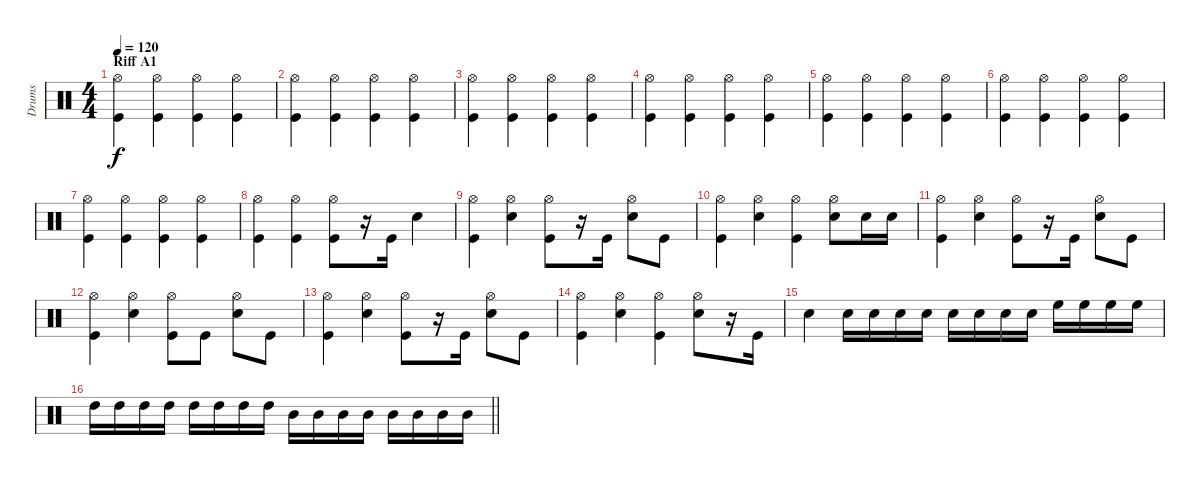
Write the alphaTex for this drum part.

\track ("Drums" "Drums") {instrument percussion}
\staff {score}
\articulation defaults
\ts (4 4)
\section ("" "Riff A1")
\tempo 120
\clef neutral
\ks c
("Hi-Hat (open)" "Kick (hit)").4{dy f} ("Hi-Hat (open)" "Kick (hit)").4 ("Hi-Hat (open)" "Kick (hit)").4 ("Hi-Hat (open)" "Kick (hit)").4 |
("Hi-Hat (open)" "Kick (hit)").4 ("Hi-Hat (open)" "Kick (hit)").4 ("Hi-Hat (open)" "Kick (hit)").4 ("Hi-Hat (open)" "Kick (hit)").4 |
("Hi-Hat (open)" "Kick (hit)").4 ("Hi-Hat (open)" "Kick (hit)").4 ("Hi-Hat (open)" "Kick (hit)").4 ("Hi-Hat (open)" "Kick (hit)").4 |
("Hi-Hat (open)" "Kick (hit)").4 ("Hi-Hat (open)" "Kick (hit)").4 ("Hi-Hat (open)" "Kick (hit)").4 ("Hi-Hat (open)" "Kick (hit)").4 |
("Hi-Hat (open)" "Kick (hit)").4 ("Hi-Hat (open)" "Kick (hit)").4 ("Hi-Hat (open)" "Kick (hit)").4 ("Hi-Hat (open)" "Kick (hit)").4 |
("Hi-Hat (open)" "Kick (hit)").4 ("Hi-Hat (open)" "Kick (hit)").4 ("Hi-Hat (open)" "Kick (hit)").4 ("Hi-Hat (open)" "Kick (hit)").4 |
("Hi-Hat (open)" "Kick (hit)").4 ("Hi-Hat (open)" "Kick (hit)").4 ("Hi-Hat (open)" "Kick (hit)").4 ("Hi-Hat (open)" "Kick (hit)").4 |
("Hi-Hat (open)" "Kick (hit)").4 ("Hi-Hat (open)" "Kick (hit)").4 ("Hi-Hat (open)" "Kick (hit)").8 r.16 "Kick (hit)".16 "Snare (hit) 2".4 |
("Hi-Hat (open)" "Kick (hit)").4 ("Hi-Hat (open)" "Snare (hit) 2").4 ("Hi-Hat (open)" "Kick (hit)").8 r.16 "Kick (hit)".16 ("Hi-Hat (open)" "Snare (hit) 2").8 "Kick (hit)".8 |
("Hi-Hat (open)" "Kick (hit)").4 ("Hi-Hat (open)" "Snare (hit) 2").4 ("Hi-Hat (open)" "Kick (hit)").4 ("Hi-Hat (open)" "Snare (hit) 2").8 "Snare (hit) 2".16 "Snare (hit) 2".16 |
("Hi-Hat (open)" "Kick (hit)").4 ("Hi-Hat (open)" "Snare (hit) 2").4 ("Hi-Hat (open)" "Kick (hit)").8 r.16 "Kick (hit)".16 ("Hi-Hat (open)" "Snare (hit) 2").8 "Kick (hit)".8 |
("Hi-Hat (open)" "Kick (hit)").4 ("Hi-Hat (open)" "Snare (hit) 2").4 ("Hi-Hat (open)" "Kick (hit)").8 "Kick (hit)".8 ("Hi-Hat (open)" "Snare (hit) 2").8 "Kick (hit)".8 |
("Hi-Hat (open)" "Kick (hit)").4 ("Hi-Hat (open)" "Snare (hit) 2").4 ("Hi-Hat (open)" "Kick (hit)").8 r.16 "Kick (hit)".16 ("Hi-Hat (open)" "Snare (hit) 2").8 "Kick (hit)".8 |
("Hi-Hat (open)" "Kick (hit)").4 ("Hi-Hat (open)" "Snare (hit) 2").4 ("Hi-Hat (open)" "Kick (hit)").4 ("Hi-Hat (open)" "Snare (hit) 2").8 r.16 "Kick (hit)".16 |
"Snare (hit) 2".4 "Snare (hit) 2".16 "Snare (hit) 2".16 "Snare (hit) 2".16 "Snare (hit) 2".16 "Snare (hit) 2".16 "Snare (hit) 2".16 "Snare (hit) 2".16 "Snare (hit) 2".16 "High Floor Tom (hit)".16 "High Floor Tom (hit)".16 "High Floor Tom (hit)".16 "High Floor Tom (hit)".16 |
\barLineRight lightlight "High Tom (hit)".16 "High Tom (hit)".16 "High Tom (hit)".16 "High Tom (hit)".16 "High Tom (hit)".16 "High Tom (hit)".16 "High Tom (hit)".16 "High Tom (hit)".16 "Mid Tom (hit)".16 "Mid Tom (hit)".16 "Mid Tom (hit)".16 "Mid Tom (hit)".16 "Mid Tom (hit)".16 "Mid Tom (hit)".16 "Mid Tom (hit)".16 "Mid Tom (hit)".16
